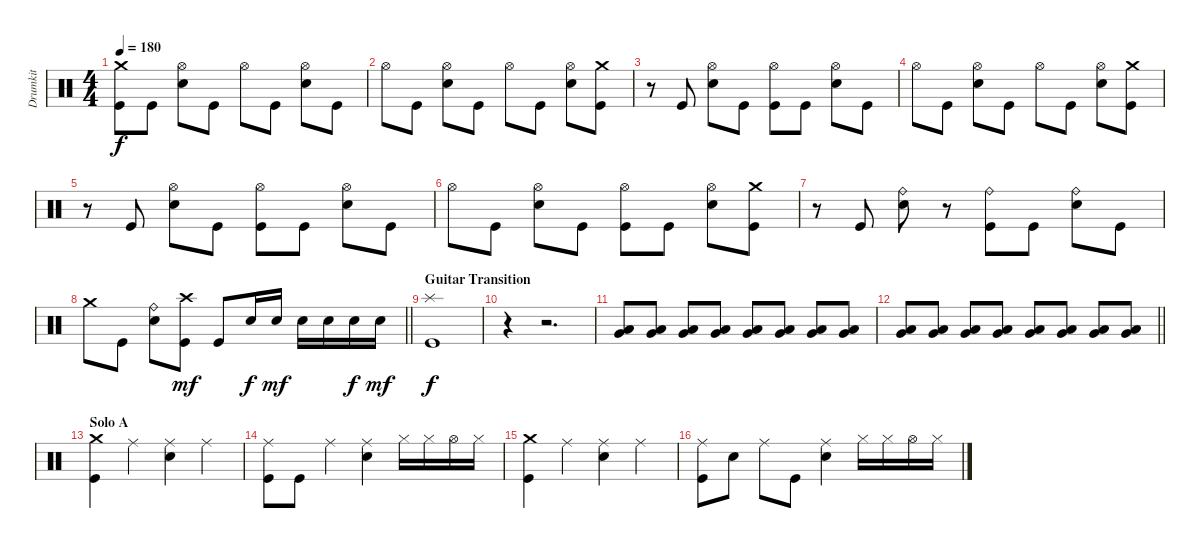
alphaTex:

\track ("Drumkit" "Drumkit") {instrument percussion}
\staff {score}
\articulation defaults
\ts (4 4)
\tempo 180
\clef neutral
\ks c
("Crash medium (hit)" "Kick (hit)").8{dy f} "Kick (hit)".8 ("Hi-Hat (open)" "Snare (hit) 2").8 "Kick (hit)".8 "Hi-Hat (open)".8 "Kick (hit)".8 ("Hi-Hat (open)" "Snare (hit) 2").8 "Kick (hit)".8 |
"Hi-Hat (open)".8 "Kick (hit)".8 ("Hi-Hat (open)" "Snare (hit) 2").8 "Kick (hit)".8 "Hi-Hat (open)".8 "Kick (hit)".8 ("Hi-Hat (open)" "Snare (hit) 2").8 ("Crash medium (hit)" "Kick (hit)").8 |
r.8 "Kick (hit)".8 ("Hi-Hat (open)" "Snare (hit) 2").8 "Kick (hit)".8 ("Hi-Hat (open)" "Kick (hit)").8 "Kick (hit)".8 ("Hi-Hat (open)" "Snare (hit) 2").8 "Kick (hit)".8 |
"Hi-Hat (open)".8 "Kick (hit)".8 ("Hi-Hat (open)" "Snare (hit) 2").8 "Kick (hit)".8 "Hi-Hat (open)".8 "Kick (hit)".8 ("Hi-Hat (open)" "Snare (hit) 2").8 ("Crash medium (hit)" "Kick (hit)").8 |
r.8 "Kick (hit)".8 ("Hi-Hat (open)" "Snare (hit) 2").8 "Kick (hit)".8 ("Hi-Hat (open)" "Kick (hit)").8 "Kick (hit)".8 ("Hi-Hat (open)" "Snare (hit) 2").8 "Kick (hit)".8 |
"Hi-Hat (open)".8 "Kick (hit)".8 ("Hi-Hat (open)" "Snare (hit) 2").8 "Kick (hit)".8 ("Hi-Hat (open)" "Kick (hit)").8 "Kick (hit)".8 ("Hi-Hat (open)" "Snare (hit) 2").8 ("Crash medium (hit)" "Kick (hit)").8 |
r.8 "Kick (hit)".8 ("Ride (bell)" "Snare (hit) 2").8 r.8 ("Ride (bell)" "Kick (hit)").8 "Kick (hit)".8 ("Ride (bell)" "Snare (hit) 2").8 "Kick (hit)".8 |
\barLineRight lightlight "Crash medium (hit)".8 "Kick (hit)".8
("Ride (bell)" "Snare (hit) 2").8 ("Crash high (hit)" "Kick (hit)").8{dy mf} "Kick (hit)".8 "Snare (hit) 2".16{dy f} "Snare (hit) 2".16{dy mf} "Snare (hit) 2".16 "Snare (hit) 2".16 "Snare (hit) 2".16{dy f} "Snare (hit) 2".16{dy mf} |
\section ("" "Guitar Transition")
("Splash (hit)" "Kick (hit)").1{dy f} |
r.4 r.2{d} |
("Very Low Tom (hit)" "Low Floor Tom (hit)").8 ("Very Low Tom (hit)" "Low Floor Tom (hit)").8 ("Very Low Tom (hit)" "Low Floor Tom (hit)").8 ("Very Low Tom (hit)" "Low Floor Tom (hit)").8 ("Very Low Tom (hit)" "Low Floor Tom (hit)").8 ("Very Low Tom (hit)" "Low Floor Tom (hit)").8 ("Very Low Tom (hit)" "Low Floor Tom (hit)").8 ("Very Low Tom (hit)" "Low Floor Tom (hit)").8 |
\barLineRight lightlight
("Very Low Tom (hit)" "Low Floor Tom (hit)").8 ("Very Low Tom (hit)" "Low Floor Tom (hit)").8 ("Very Low Tom (hit)" "Low Floor Tom (hit)").8 ("Very Low Tom (hit)" "Low Floor Tom (hit)").8 ("Very Low Tom (hit)" "Low Floor Tom (hit)").8 ("Very Low Tom (hit)" "Low Floor Tom (hit)").8 ("Very Low Tom (hit)" "Low Floor Tom (hit)").8 ("Very Low Tom (hit)" "Low Floor Tom (hit)").8 |
\section ("" "Solo A")
("Crash medium (hit)" "Kick (hit)").4 "Ride (middle)".4 ("Ride (middle)" "Snare (hit) 2").4 "Ride (middle)".4 |
("Ride (middle)" "Kick (hit)").8 "Kick (hit)".8 "Ride (middle)".4 ("Ride (middle)" "Snare (hit) 2").4 "Hi-Hat (closed)".16 "Hi-Hat (closed)".16 "Hi-Hat (open)".16 "Hi-Hat (closed)".16 |
("Crash medium (hit)" "Kick (hit)").4 "Ride (middle)".4 ("Ride (middle)" "Snare (hit) 2").4 "Ride (middle)".4 |
("Ride (middle)" "Kick (hit)").8 "Snare (hit) 2".8 "Ride (middle)".8 "Kick (hit)".8 ("Ride (middle)" "Snare (hit) 2").4 "Hi-Hat (closed)".16 "Hi-Hat (closed)".16 "Hi-Hat (open)".16 "Hi-Hat (closed)".16
